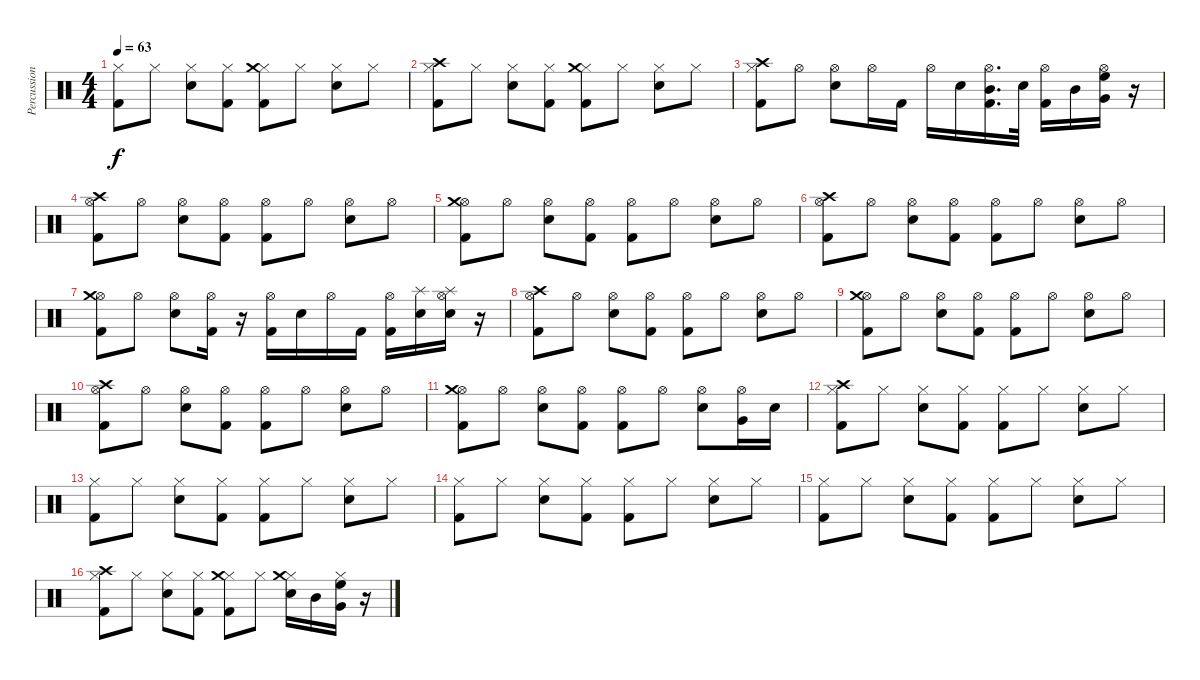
\track ("Percussion" "Percussion") {instrument percussion}
\staff {score}
\articulation defaults
\ts (4 4)
\tempo 63
\clef neutral
\ks c
("Hi-Hat (closed)" "Kick (hit) 2").8{dy f} "Hi-Hat (closed)".8 ("Hi-Hat (closed)" "Electric Snare (hit)").8 ("Hi-Hat (closed)" "Kick (hit) 2").8 ("Hi-Hat (closed)" "Crash medium (hit)" "Kick (hit) 2").8 "Hi-Hat (closed)".8 ("Hi-Hat (closed)" "Electric Snare (hit)").8 "Hi-Hat (closed)".8 |
("Hi-Hat (closed)" "Crash high (hit)" "Kick (hit) 2").8 "Hi-Hat (closed)".8 ("Hi-Hat (closed)" "Electric Snare (hit)").8 ("Hi-Hat (closed)" "Kick (hit) 2").8 ("Hi-Hat (closed)" "Crash medium (hit)" "Kick (hit) 2").8 "Hi-Hat (closed)".8 ("Hi-Hat (closed)" "Electric Snare (hit)").8 "Hi-Hat (closed)".8 |
("Hi-Hat (closed)" "Crash high (hit)" "Kick (hit) 2").8 "Hi-Hat (open)".8 ("Hi-Hat (open)" "Electric Snare (hit)").8 "Hi-Hat (open)".16 "Kick (hit) 2".16 "Hi-Hat (open)".16 "Electric Snare (hit)".16 ("Hi-Hat (open)" "Mid Tom (hit)" "Kick (hit) 2").16{d} "Electric Snare (hit)".32 ("Hi-Hat (open)" "Kick (hit) 2").16 "Mid Tom (hit)".16 ("Hi-Hat (open)" "Very Low Tom (hit)" "High Floor Tom (hit)").16 r.16 |
("Hi-Hat (open)" "Crash high (hit)" "Kick (hit) 2").8 "Hi-Hat (open)".8 ("Hi-Hat (open)" "Electric Snare (hit)").8 ("Hi-Hat (open)" "Kick (hit) 2").8 ("Hi-Hat (open)" "Kick (hit) 2").8 "Hi-Hat (open)".8 ("Hi-Hat (open)" "Electric Snare (hit)").8 "Hi-Hat (open)".8 |
("Hi-Hat (open)" "Crash medium (hit)" "Kick (hit) 2").8 "Hi-Hat (open)".8 ("Hi-Hat (open)" "Electric Snare (hit)").8 ("Hi-Hat (open)" "Kick (hit) 2").8 ("Hi-Hat (open)" "Kick (hit) 2").8 "Hi-Hat (open)".8 ("Hi-Hat (open)" "Electric Snare (hit)").8 "Hi-Hat (open)".8 |
("Hi-Hat (open)" "Crash high (hit)" "Kick (hit) 2").8 "Hi-Hat (open)".8 ("Hi-Hat (open)" "Electric Snare (hit)").8 ("Hi-Hat (open)" "Kick (hit) 2").8 ("Hi-Hat (open)" "Kick (hit) 2").8 "Hi-Hat (open)".8 ("Hi-Hat (open)" "Electric Snare (hit)").8 "Hi-Hat (open)".8 |
("Hi-Hat (open)" "Crash medium (hit)" "Kick (hit) 2").8 "Hi-Hat (open)".8 ("Hi-Hat (open)" "Electric Snare (hit)").8 ("Hi-Hat (open)" "Kick (hit) 2").16 r.16 ("Hi-Hat (open)" "Kick (hit) 2").16 "Electric Snare (hit)".16 "Hi-Hat (open)".16 "Kick (hit) 2".16 ("Hi-Hat (open)" "Kick (hit) 2").16 ("Electric Snare (hit)" "Splash (hit)").16 ("Hi-Hat (open)" "Electric Snare (hit)" "Splash (hit)").16 r.16 |
("Hi-Hat (open)" "Crash high (hit)" "Kick (hit) 2").8 "Hi-Hat (open)".8 ("Hi-Hat (open)" "Electric Snare (hit)").8 ("Hi-Hat (open)" "Kick (hit) 2").8 ("Hi-Hat (open)" "Kick (hit) 2").8 "Hi-Hat (open)".8 ("Hi-Hat (open)" "Electric Snare (hit)").8 "Hi-Hat (open)".8 |
("Hi-Hat (open)" "Crash medium (hit)" "Kick (hit) 2").8 "Hi-Hat (open)".8 ("Hi-Hat (open)" "Electric Snare (hit)").8 ("Hi-Hat (open)" "Kick (hit) 2").8 ("Hi-Hat (open)" "Kick (hit) 2").8 "Hi-Hat (open)".8 ("Hi-Hat (open)" "Electric Snare (hit)").8 "Hi-Hat (open)".8 |
("Hi-Hat (open)" "Crash high (hit)" "Kick (hit) 2").8 "Hi-Hat (open)".8 ("Hi-Hat (open)" "Electric Snare (hit)").8 ("Hi-Hat (open)" "Kick (hit) 2").8 ("Hi-Hat (open)" "Kick (hit) 2").8 "Hi-Hat (open)".8 ("Hi-Hat (open)" "Electric Snare (hit)").8 "Hi-Hat (open)".8 |
("Hi-Hat (open)" "Crash medium (hit)" "Kick (hit) 2").8 "Hi-Hat (open)".8 ("Hi-Hat (open)" "Electric Snare (hit)").8 ("Hi-Hat (open)" "Kick (hit) 2").8 ("Hi-Hat (open)" "Kick (hit) 2").8 "Hi-Hat (open)".8 ("Hi-Hat (open)" "Electric Snare (hit)").8 ("Hi-Hat (open)" "Very Low Tom (hit)").16 "Electric Snare (hit)".16 |
("Hi-Hat (closed)" "Crash high (hit)" "Kick (hit) 2").8 "Hi-Hat (closed)".8 ("Hi-Hat (closed)" "Electric Snare (hit)").8 ("Hi-Hat (closed)" "Kick (hit) 2").8 ("Hi-Hat (closed)" "Kick (hit) 2").8 "Hi-Hat (closed)".8 ("Hi-Hat (closed)" "Electric Snare (hit)").8 "Hi-Hat (closed)".8 |
("Hi-Hat (closed)" "Kick (hit) 2").8 "Hi-Hat (closed)".8 ("Hi-Hat (closed)" "Electric Snare (hit)").8 ("Hi-Hat (closed)" "Kick (hit) 2").8 ("Hi-Hat (closed)" "Kick (hit) 2").8 "Hi-Hat (closed)".8 ("Hi-Hat (closed)" "Electric Snare (hit)").8 "Hi-Hat (closed)".8 |
("Hi-Hat (closed)" "Kick (hit) 2").8 "Hi-Hat (closed)".8 ("Hi-Hat (closed)" "Electric Snare (hit)").8 ("Hi-Hat (closed)" "Kick (hit) 2").8 ("Hi-Hat (closed)" "Kick (hit) 2").8 "Hi-Hat (closed)".8 ("Hi-Hat (closed)" "Electric Snare (hit)").8 "Hi-Hat (closed)".8 |
("Hi-Hat (closed)" "Kick (hit) 2").8 "Hi-Hat (closed)".8 ("Hi-Hat (closed)" "Electric Snare (hit)").8 ("Hi-Hat (closed)" "Kick (hit) 2").8 ("Hi-Hat (closed)" "Kick (hit) 2").8 "Hi-Hat (closed)".8 ("Hi-Hat (closed)" "Electric Snare (hit)").8 "Hi-Hat (closed)".8 |
("Hi-Hat (closed)" "Crash high (hit)" "Kick (hit) 2").8 "Hi-Hat (closed)".8 ("Hi-Hat (closed)" "Electric Snare (hit)").8 ("Hi-Hat (closed)" "Kick (hit) 2").8 ("Hi-Hat (closed)" "Crash medium (hit)" "Kick (hit) 2").8 "Hi-Hat (closed)".8 ("Hi-Hat (closed)" "Electric Snare (hit)" "Crash medium (hit)").16 "Mid Tom (hit)".16 ("Hi-Hat (closed)" "Very Low Tom (hit)" "High Floor Tom (hit)").16 r.16
